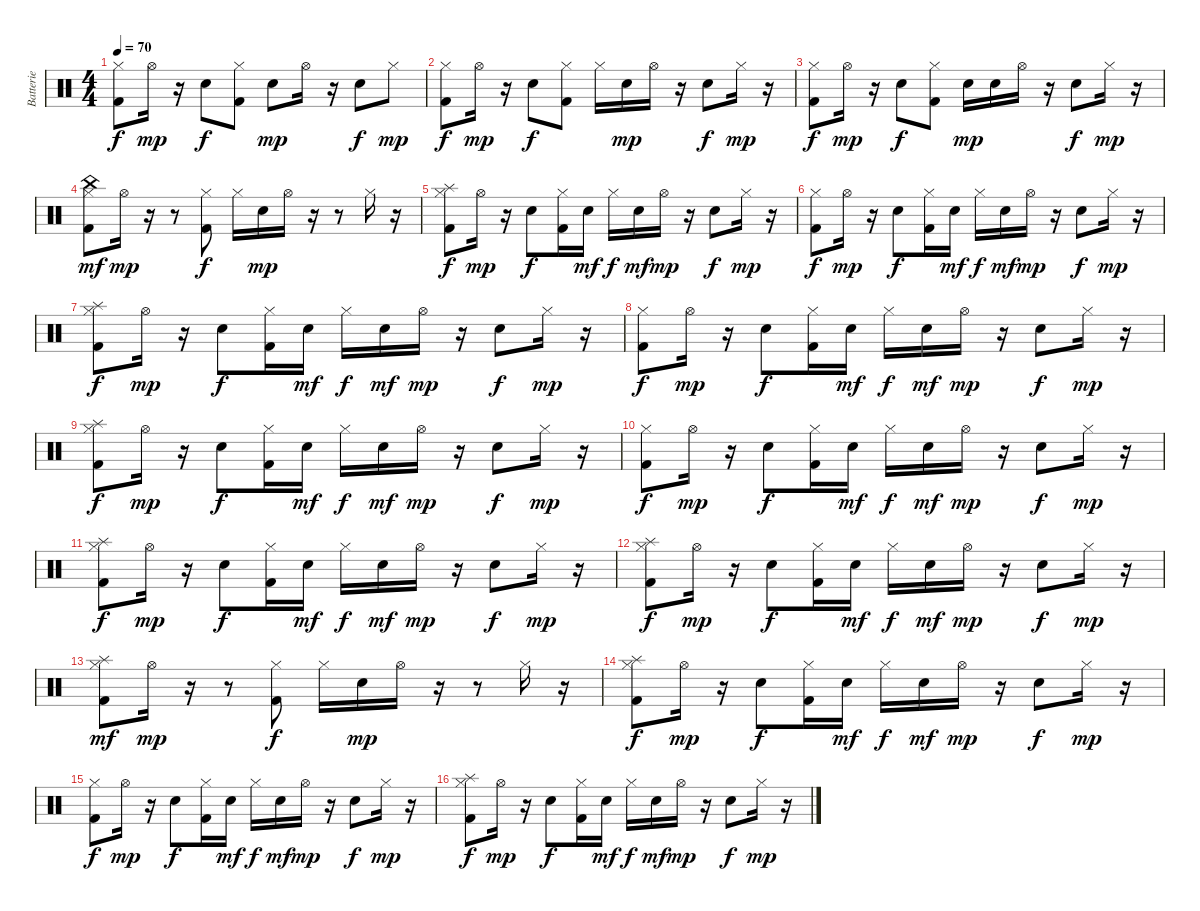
\track ("Batterie" "Batterie") {instrument percussion}
\staff {score}
\articulation defaults
\ts (4 4)
\tempo 70
\clef neutral
\ks c
("Kick (hit) 2" "Hi-Hat (closed)").8{dy f} "Hi-Hat (open)".16{dy mp} r.16 "Electric Snare (hit)".8{dy f} ("Kick (hit) 2" "Hi-Hat (closed)").8 "Electric Snare (hit)".8{dy mp} "Hi-Hat (open)".16 r.16 "Electric Snare (hit)".8{dy f} "Hi-Hat (closed)".8{dy mp} |
("Kick (hit) 2" "Hi-Hat (closed)").8{dy f} "Hi-Hat (open)".16{dy mp} r.16 "Electric Snare (hit)".8{dy f} ("Kick (hit) 2" "Hi-Hat (closed)").8 "Hi-Hat (closed)".16 "Electric Snare (hit)".16{dy mp} "Hi-Hat (open)".16 r.16 "Electric Snare (hit)".8{dy f} "Hi-Hat (closed)".16{dy mp} r.16 |
("Kick (hit) 2" "Hi-Hat (closed)").8{dy f} "Hi-Hat (open)".16{dy mp} r.16 "Electric Snare (hit)".8{dy f} ("Kick (hit) 2" "Hi-Hat (closed)").8 "Electric Snare (hit)".16{dy mp} "Electric Snare (hit)".16 "Hi-Hat (open)".16 r.16 "Electric Snare (hit)".8{dy f} "Hi-Hat (closed)".16{dy mp} r.16 |
("Kick (hit) 2" "Hi-Hat (closed)" "China (hit)").8{dy mf} "Hi-Hat (open)".16{dy mp} r.16 r.8 ("Kick (hit) 2" "Hi-Hat (closed)").8{dy f} "Hi-Hat (closed)".16 "Electric Snare (hit)".16{dy mp} "Hi-Hat (open)".16 r.16 r.8 "Hi-Hat (closed)".16 r.16 |
("Kick (hit) 2" "Hi-Hat (closed)" "Splash (hit)").8{dy f} "Hi-Hat (open)".16{dy mp} r.16 "Electric Snare (hit)".8{dy f} ("Kick (hit) 2" "Hi-Hat (closed)").16 "Electric Snare (hit)".16{dy mf} "Hi-Hat (closed)".16{dy f} "Electric Snare (hit)".16{dy mf} "Hi-Hat (open)".16{dy mp} r.16 "Electric Snare (hit)".8{dy f} "Hi-Hat (closed)".16{dy mp} r.16 |
("Kick (hit) 2" "Hi-Hat (closed)").8{dy f} "Hi-Hat (open)".16{dy mp} r.16 "Electric Snare (hit)".8{dy f} ("Kick (hit) 2" "Hi-Hat (closed)").16 "Electric Snare (hit)".16{dy mf} "Hi-Hat (closed)".16{dy f} "Electric Snare (hit)".16{dy mf} "Hi-Hat (open)".16{dy mp} r.16 "Electric Snare (hit)".8{dy f} "Hi-Hat (closed)".16{dy mp} r.16 |
("Kick (hit) 2" "Hi-Hat (closed)" "Splash (hit)").8{dy f} "Hi-Hat (open)".16{dy mp} r.16 "Electric Snare (hit)".8{dy f} ("Kick (hit) 2" "Hi-Hat (closed)").16 "Electric Snare (hit)".16{dy mf} "Hi-Hat (closed)".16{dy f} "Electric Snare (hit)".16{dy mf} "Hi-Hat (open)".16{dy mp} r.16 "Electric Snare (hit)".8{dy f} "Hi-Hat (closed)".16{dy mp} r.16 |
("Kick (hit) 2" "Hi-Hat (closed)").8{dy f} "Hi-Hat (open)".16{dy mp} r.16 "Electric Snare (hit)".8{dy f} ("Kick (hit) 2" "Hi-Hat (closed)").16 "Electric Snare (hit)".16{dy mf} "Hi-Hat (closed)".16{dy f} "Electric Snare (hit)".16{dy mf} "Hi-Hat (open)".16{dy mp} r.16 "Electric Snare (hit)".8{dy f} "Hi-Hat (closed)".16{dy mp} r.16 |
("Kick (hit) 2" "Hi-Hat (closed)" "Splash (hit)").8{dy f} "Hi-Hat (open)".16{dy mp} r.16 "Electric Snare (hit)".8{dy f} ("Kick (hit) 2" "Hi-Hat (closed)").16 "Electric Snare (hit)".16{dy mf} "Hi-Hat (closed)".16{dy f} "Electric Snare (hit)".16{dy mf} "Hi-Hat (open)".16{dy mp} r.16 "Electric Snare (hit)".8{dy f} "Hi-Hat (closed)".16{dy mp} r.16 |
("Kick (hit) 2" "Hi-Hat (closed)").8{dy f} "Hi-Hat (open)".16{dy mp} r.16 "Electric Snare (hit)".8{dy f} ("Kick (hit) 2" "Hi-Hat (closed)").16 "Electric Snare (hit)".16{dy mf} "Hi-Hat (closed)".16{dy f} "Electric Snare (hit)".16{dy mf} "Hi-Hat (open)".16{dy mp} r.16 "Electric Snare (hit)".8{dy f} "Hi-Hat (closed)".16{dy mp} r.16 |
("Kick (hit) 2" "Hi-Hat (closed)" "Splash (hit)").8{dy f} "Hi-Hat (open)".16{dy mp} r.16 "Electric Snare (hit)".8{dy f} ("Kick (hit) 2" "Hi-Hat (closed)").16 "Electric Snare (hit)".16{dy mf} "Hi-Hat (closed)".16{dy f} "Electric Snare (hit)".16{dy mf} "Hi-Hat (open)".16{dy mp} r.16 "Electric Snare (hit)".8{dy f} "Hi-Hat (closed)".16{dy mp} r.16 |
("Kick (hit) 2" "Hi-Hat (closed)" "Splash (hit)").8{dy f} "Hi-Hat (open)".16{dy mp} r.16 "Electric Snare (hit)".8{dy f} ("Kick (hit) 2" "Hi-Hat (closed)").16 "Electric Snare (hit)".16{dy mf} "Hi-Hat (closed)".16{dy f} "Electric Snare (hit)".16{dy mf} "Hi-Hat (open)".16{dy mp} r.16 "Electric Snare (hit)".8{dy f} "Hi-Hat (closed)".16{dy mp} r.16 |
("Kick (hit) 2" "Hi-Hat (closed)" "Splash (hit)").8{dy mf} "Hi-Hat (open)".16{dy mp} r.16 r.8 ("Kick (hit) 2" "Hi-Hat (closed)").8{dy f} "Hi-Hat (closed)".16 "Electric Snare (hit)".16{dy mp} "Hi-Hat (open)".16 r.16 r.8 "Hi-Hat (closed)".16 r.16 |
("Kick (hit) 2" "Hi-Hat (closed)" "Splash (hit)").8{dy f} "Hi-Hat (open)".16{dy mp} r.16 "Electric Snare (hit)".8{dy f} ("Kick (hit) 2" "Hi-Hat (closed)").16 "Electric Snare (hit)".16{dy mf} "Hi-Hat (closed)".16{dy f} "Electric Snare (hit)".16{dy mf} "Hi-Hat (open)".16{dy mp} r.16 "Electric Snare (hit)".8{dy f} "Hi-Hat (closed)".16{dy mp} r.16 |
("Kick (hit) 2" "Hi-Hat (closed)").8{dy f} "Hi-Hat (open)".16{dy mp} r.16 "Electric Snare (hit)".8{dy f} ("Kick (hit) 2" "Hi-Hat (closed)").16 "Electric Snare (hit)".16{dy mf} "Hi-Hat (closed)".16{dy f} "Electric Snare (hit)".16{dy mf} "Hi-Hat (open)".16{dy mp} r.16 "Electric Snare (hit)".8{dy f} "Hi-Hat (closed)".16{dy mp} r.16 |
("Kick (hit) 2" "Hi-Hat (closed)" "Splash (hit)").8{dy f} "Hi-Hat (open)".16{dy mp} r.16 "Electric Snare (hit)".8{dy f} ("Kick (hit) 2" "Hi-Hat (closed)").16 "Electric Snare (hit)".16{dy mf} "Hi-Hat (closed)".16{dy f} "Electric Snare (hit)".16{dy mf} "Hi-Hat (open)".16{dy mp} r.16 "Electric Snare (hit)".8{dy f} "Hi-Hat (closed)".16{dy mp} r.16
